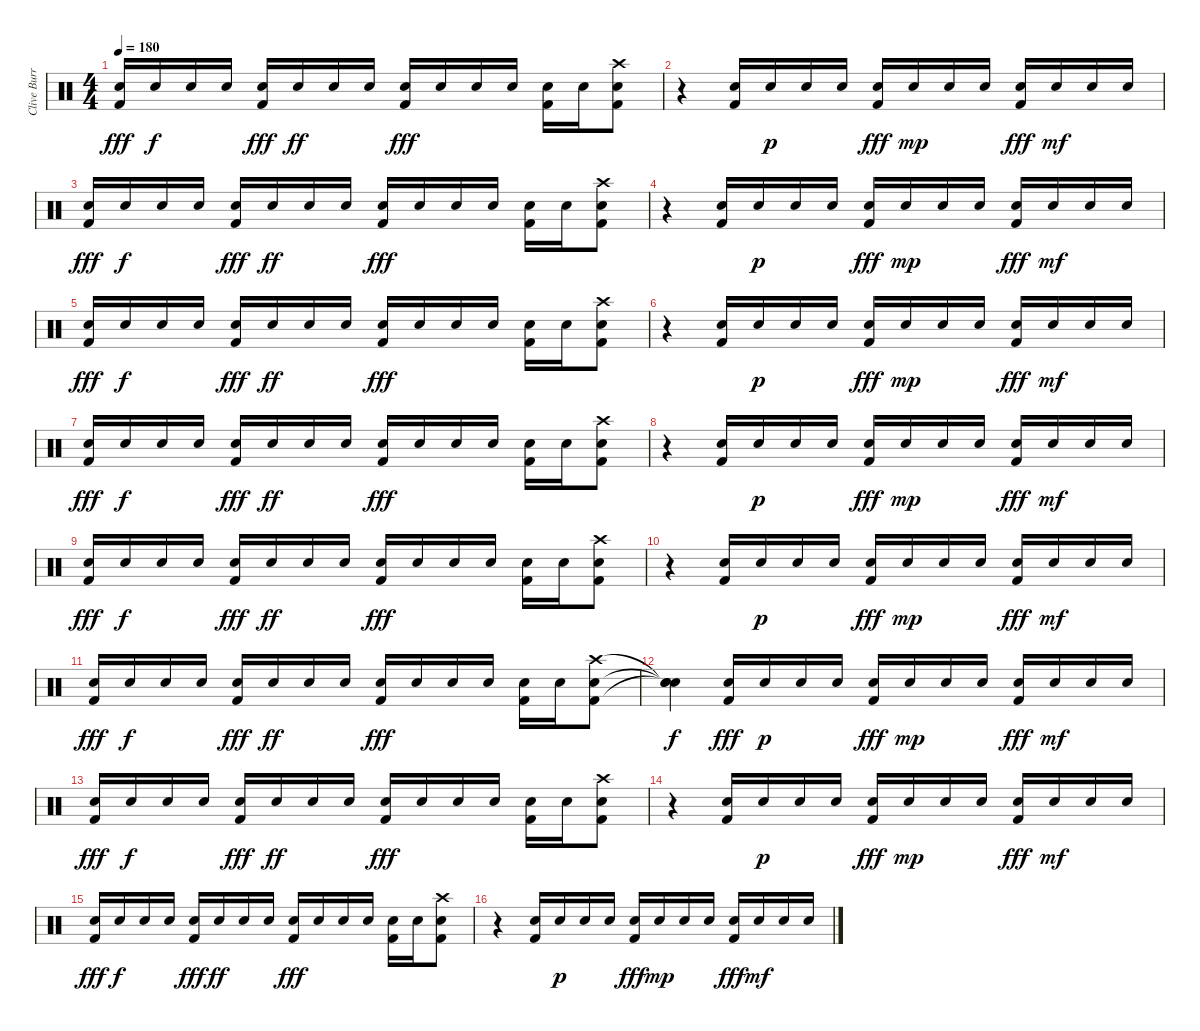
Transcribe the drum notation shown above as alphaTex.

\track ("Clive Burr - Drums" "Clive Burr") {instrument percussion}
\staff {score}
\articulation defaults
\ts (4 4)
\tempo 180
\clef neutral
\ks c
("Snare (hit) 2" "Kick (hit) 2").16{dy fff} "Snare (hit) 2".16{dy f} "Snare (hit) 2".16 "Snare (hit) 2".16 ("Snare (hit) 2" "Kick (hit) 2").16{dy fff} "Snare (hit) 2".16{dy ff} "Snare (hit) 2".16 "Snare (hit) 2".16 ("Snare (hit) 2" "Kick (hit) 2").16{dy fff} "Snare (hit) 2".16 "Snare (hit) 2".16 "Snare (hit) 2".16 ("Snare (hit) 2" "Kick (hit) 2").16 "Snare (hit) 2".16 ("Crash high (hit)" "Snare (hit) 2" "Kick (hit) 2").8 |
r.4 ("Snare (hit) 2" "Kick (hit) 2").16 "Snare (hit) 2".16{dy p} "Snare (hit) 2".16 "Snare (hit) 2".16 ("Snare (hit) 2" "Kick (hit) 2").16{dy fff} "Snare (hit) 2".16{dy mp} "Snare (hit) 2".16 "Snare (hit) 2".16 ("Snare (hit) 2" "Kick (hit) 2").16{dy fff} "Snare (hit) 2".16{dy mf} "Snare (hit) 2".16 "Snare (hit) 2".16 |
("Snare (hit) 2" "Kick (hit) 2").16{dy fff} "Snare (hit) 2".16{dy f} "Snare (hit) 2".16 "Snare (hit) 2".16 ("Snare (hit) 2" "Kick (hit) 2").16{dy fff} "Snare (hit) 2".16{dy ff} "Snare (hit) 2".16 "Snare (hit) 2".16 ("Snare (hit) 2" "Kick (hit) 2").16{dy fff} "Snare (hit) 2".16 "Snare (hit) 2".16 "Snare (hit) 2".16 ("Snare (hit) 2" "Kick (hit) 2").16 "Snare (hit) 2".16 ("Crash high (hit)" "Snare (hit) 2" "Kick (hit) 2").8 |
r.4 ("Snare (hit) 2" "Kick (hit) 2").16 "Snare (hit) 2".16{dy p} "Snare (hit) 2".16 "Snare (hit) 2".16 ("Snare (hit) 2" "Kick (hit) 2").16{dy fff} "Snare (hit) 2".16{dy mp} "Snare (hit) 2".16 "Snare (hit) 2".16 ("Snare (hit) 2" "Kick (hit) 2").16{dy fff} "Snare (hit) 2".16{dy mf} "Snare (hit) 2".16 "Snare (hit) 2".16 |
("Snare (hit) 2" "Kick (hit) 2").16{dy fff} "Snare (hit) 2".16{dy f} "Snare (hit) 2".16 "Snare (hit) 2".16 ("Snare (hit) 2" "Kick (hit) 2").16{dy fff} "Snare (hit) 2".16{dy ff} "Snare (hit) 2".16 "Snare (hit) 2".16 ("Snare (hit) 2" "Kick (hit) 2").16{dy fff} "Snare (hit) 2".16 "Snare (hit) 2".16 "Snare (hit) 2".16 ("Snare (hit) 2" "Kick (hit) 2").16 "Snare (hit) 2".16 ("Crash high (hit)" "Snare (hit) 2" "Kick (hit) 2").8 |
r.4 ("Snare (hit) 2" "Kick (hit) 2").16 "Snare (hit) 2".16{dy p} "Snare (hit) 2".16 "Snare (hit) 2".16 ("Snare (hit) 2" "Kick (hit) 2").16{dy fff} "Snare (hit) 2".16{dy mp} "Snare (hit) 2".16 "Snare (hit) 2".16 ("Snare (hit) 2" "Kick (hit) 2").16{dy fff} "Snare (hit) 2".16{dy mf} "Snare (hit) 2".16 "Snare (hit) 2".16 |
("Snare (hit) 2" "Kick (hit) 2").16{dy fff} "Snare (hit) 2".16{dy f} "Snare (hit) 2".16 "Snare (hit) 2".16 ("Snare (hit) 2" "Kick (hit) 2").16{dy fff} "Snare (hit) 2".16{dy ff} "Snare (hit) 2".16 "Snare (hit) 2".16 ("Snare (hit) 2" "Kick (hit) 2").16{dy fff} "Snare (hit) 2".16 "Snare (hit) 2".16 "Snare (hit) 2".16 ("Snare (hit) 2" "Kick (hit) 2").16 "Snare (hit) 2".16 ("Crash high (hit)" "Snare (hit) 2" "Kick (hit) 2").8 |
r.4 ("Snare (hit) 2" "Kick (hit) 2").16 "Snare (hit) 2".16{dy p} "Snare (hit) 2".16 "Snare (hit) 2".16 ("Snare (hit) 2" "Kick (hit) 2").16{dy fff} "Snare (hit) 2".16{dy mp} "Snare (hit) 2".16 "Snare (hit) 2".16 ("Snare (hit) 2" "Kick (hit) 2").16{dy fff} "Snare (hit) 2".16{dy mf} "Snare (hit) 2".16 "Snare (hit) 2".16 |
("Snare (hit) 2" "Kick (hit) 2").16{dy fff} "Snare (hit) 2".16{dy f} "Snare (hit) 2".16 "Snare (hit) 2".16 ("Snare (hit) 2" "Kick (hit) 2").16{dy fff} "Snare (hit) 2".16{dy ff} "Snare (hit) 2".16 "Snare (hit) 2".16 ("Snare (hit) 2" "Kick (hit) 2").16{dy fff} "Snare (hit) 2".16 "Snare (hit) 2".16 "Snare (hit) 2".16 ("Snare (hit) 2" "Kick (hit) 2").16 "Snare (hit) 2".16 ("Crash high (hit)" "Snare (hit) 2" "Kick (hit) 2").8 |
r.4 ("Snare (hit) 2" "Kick (hit) 2").16 "Snare (hit) 2".16{dy p} "Snare (hit) 2".16 "Snare (hit) 2".16 ("Snare (hit) 2" "Kick (hit) 2").16{dy fff} "Snare (hit) 2".16{dy mp} "Snare (hit) 2".16 "Snare (hit) 2".16 ("Snare (hit) 2" "Kick (hit) 2").16{dy fff} "Snare (hit) 2".16{dy mf} "Snare (hit) 2".16 "Snare (hit) 2".16 |
("Snare (hit) 2" "Kick (hit) 2").16{dy fff} "Snare (hit) 2".16{dy f} "Snare (hit) 2".16 "Snare (hit) 2".16 ("Snare (hit) 2" "Kick (hit) 2").16{dy fff} "Snare (hit) 2".16{dy ff} "Snare (hit) 2".16 "Snare (hit) 2".16 ("Snare (hit) 2" "Kick (hit) 2").16{dy fff} "Snare (hit) 2".16 "Snare (hit) 2".16 "Snare (hit) 2".16 ("Snare (hit) 2" "Kick (hit) 2").16 "Snare (hit) 2".16 ("Crash high (hit)" "Snare (hit) 2" "Kick (hit) 2").8 |
("Snare (hit)"{t} "Snare (hit)"{t} "Snare (hit)"{t}).4{dy f} ("Snare (hit) 2" "Kick (hit) 2").16{dy fff} "Snare (hit) 2".16{dy p} "Snare (hit) 2".16 "Snare (hit) 2".16 ("Snare (hit) 2" "Kick (hit) 2").16{dy fff} "Snare (hit) 2".16{dy mp} "Snare (hit) 2".16 "Snare (hit) 2".16 ("Snare (hit) 2" "Kick (hit) 2").16{dy fff} "Snare (hit) 2".16{dy mf} "Snare (hit) 2".16 "Snare (hit) 2".16 |
("Snare (hit) 2" "Kick (hit) 2").16{dy fff} "Snare (hit) 2".16{dy f} "Snare (hit) 2".16 "Snare (hit) 2".16 ("Snare (hit) 2" "Kick (hit) 2").16{dy fff} "Snare (hit) 2".16{dy ff} "Snare (hit) 2".16 "Snare (hit) 2".16 ("Snare (hit) 2" "Kick (hit) 2").16{dy fff} "Snare (hit) 2".16 "Snare (hit) 2".16 "Snare (hit) 2".16 ("Snare (hit) 2" "Kick (hit) 2").16 "Snare (hit) 2".16 ("Crash high (hit)" "Snare (hit) 2" "Kick (hit) 2").8 |
r.4 ("Snare (hit) 2" "Kick (hit) 2").16 "Snare (hit) 2".16{dy p} "Snare (hit) 2".16 "Snare (hit) 2".16 ("Snare (hit) 2" "Kick (hit) 2").16{dy fff} "Snare (hit) 2".16{dy mp} "Snare (hit) 2".16 "Snare (hit) 2".16 ("Snare (hit) 2" "Kick (hit) 2").16{dy fff} "Snare (hit) 2".16{dy mf} "Snare (hit) 2".16 "Snare (hit) 2".16 |
("Snare (hit) 2" "Kick (hit) 2").16{dy fff} "Snare (hit) 2".16{dy f} "Snare (hit) 2".16 "Snare (hit) 2".16 ("Snare (hit) 2" "Kick (hit) 2").16{dy fff} "Snare (hit) 2".16{dy ff} "Snare (hit) 2".16 "Snare (hit) 2".16 ("Snare (hit) 2" "Kick (hit) 2").16{dy fff} "Snare (hit) 2".16 "Snare (hit) 2".16 "Snare (hit) 2".16 ("Snare (hit) 2" "Kick (hit) 2").16 "Snare (hit) 2".16 ("Crash high (hit)" "Snare (hit) 2" "Kick (hit) 2").8 |
r.4 ("Snare (hit) 2" "Kick (hit) 2").16 "Snare (hit) 2".16{dy p} "Snare (hit) 2".16 "Snare (hit) 2".16 ("Snare (hit) 2" "Kick (hit) 2").16{dy fff} "Snare (hit) 2".16{dy mp} "Snare (hit) 2".16 "Snare (hit) 2".16 ("Snare (hit) 2" "Kick (hit) 2").16{dy fff} "Snare (hit) 2".16{dy mf} "Snare (hit) 2".16 "Snare (hit) 2".16
